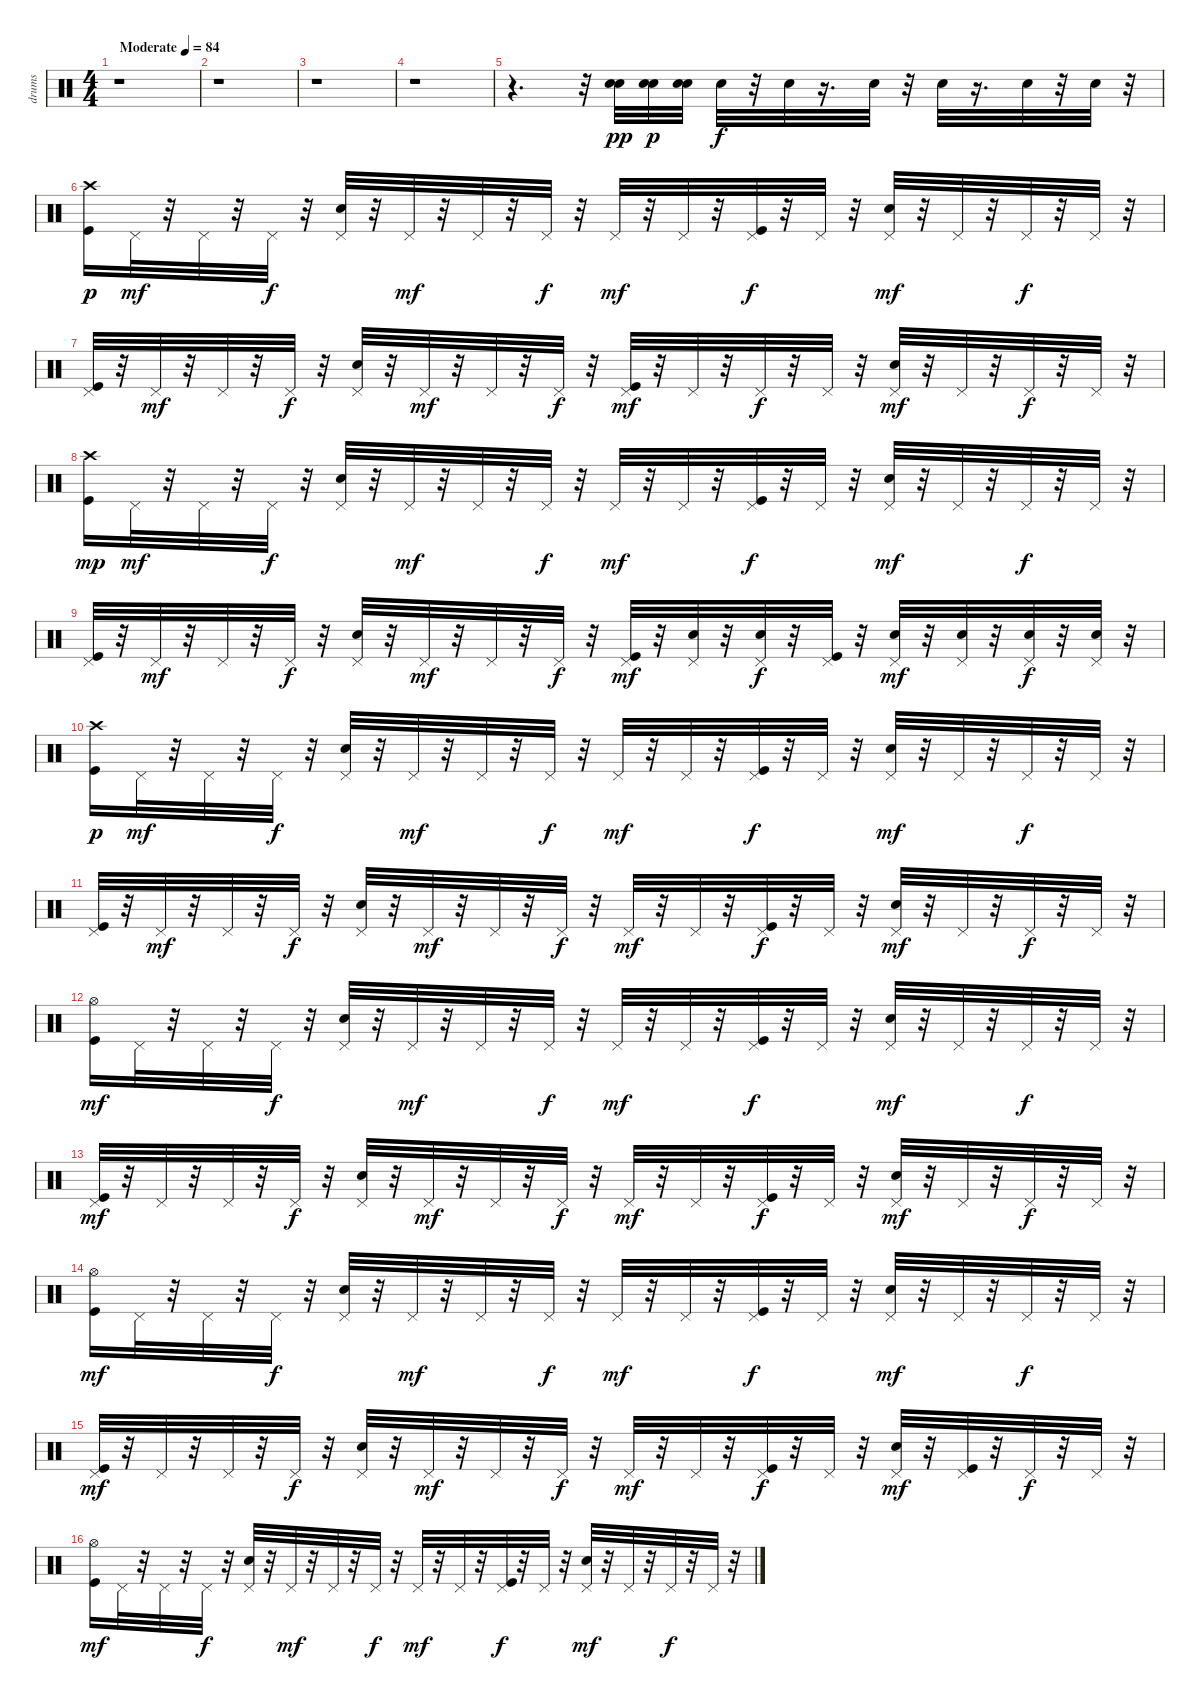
\track ("drums" "drums") {instrument percussion}
\staff {score}
\articulation defaults
\ts (4 4)
\tempo (84 "Moderate")
\clef neutral
\ks c
r.1{dy pp} |
r.1 |
r.1 |
r.1 |
r.4{d} r.32 ("Snare (hit) 2" "Snare (hit) 2").32 ("Snare (hit) 2" "Snare (hit) 2").32{dy p} ("Snare (hit) 2" "Snare (hit) 2").32 "Snare (hit) 2".32{dy f} r.32 "Snare (hit) 2".32 r.16{d} "Snare (hit) 2".32 r.32 "Snare (hit) 2".32 r.16{d} "Snare (hit) 2".32 r.32 "Snare (hit) 2".32 r.32 |
("Kick (hit)" "Crash high (hit)").16{dy p} "Pedal Hi-Hat (hit)".32{dy mf} r.32 "Pedal Hi-Hat (hit)".32 r.32 "Pedal Hi-Hat (hit)".32{dy f} r.32 ("Snare (hit) 2" "Pedal Hi-Hat (hit)").32 r.32 "Pedal Hi-Hat (hit)".32{dy mf} r.32 "Pedal Hi-Hat (hit)".32 r.32 "Pedal Hi-Hat (hit)".32{dy f} r.32 "Pedal Hi-Hat (hit)".32{dy mf} r.32 "Pedal Hi-Hat (hit)".32 r.32 ("Kick (hit)" "Pedal Hi-Hat (hit)").32{dy f} r.32 "Pedal Hi-Hat (hit)".32 r.32 ("Snare (hit) 2" "Pedal Hi-Hat (hit)").32{dy mf} r.32 "Pedal Hi-Hat (hit)".32 r.32 "Pedal Hi-Hat (hit)".32{dy f} r.32 "Pedal Hi-Hat (hit)".32 r.32 |
("Kick (hit)" "Pedal Hi-Hat (hit)").32 r.32 "Pedal Hi-Hat (hit)".32{dy mf} r.32 "Pedal Hi-Hat (hit)".32 r.32 "Pedal Hi-Hat (hit)".32{dy f} r.32 ("Snare (hit) 2" "Pedal Hi-Hat (hit)").32 r.32 "Pedal Hi-Hat (hit)".32{dy mf} r.32 "Pedal Hi-Hat (hit)".32 r.32 "Pedal Hi-Hat (hit)".32{dy f} r.32 ("Kick (hit)" "Pedal Hi-Hat (hit)").32{dy mf} r.32 "Pedal Hi-Hat (hit)".32 r.32 "Pedal Hi-Hat (hit)".32{dy f} r.32 "Pedal Hi-Hat (hit)".32 r.32 ("Snare (hit) 2" "Pedal Hi-Hat (hit)").32{dy mf} r.32 "Pedal Hi-Hat (hit)".32 r.32 "Pedal Hi-Hat (hit)".32{dy f} r.32 "Pedal Hi-Hat (hit)".32 r.32 |
("Kick (hit)" "Crash high (hit)").16{dy mp} "Pedal Hi-Hat (hit)".32{dy mf} r.32 "Pedal Hi-Hat (hit)".32 r.32 "Pedal Hi-Hat (hit)".32{dy f} r.32 ("Snare (hit) 2" "Pedal Hi-Hat (hit)").32 r.32 "Pedal Hi-Hat (hit)".32{dy mf} r.32 "Pedal Hi-Hat (hit)".32 r.32 "Pedal Hi-Hat (hit)".32{dy f} r.32 "Pedal Hi-Hat (hit)".32{dy mf} r.32 "Pedal Hi-Hat (hit)".32 r.32 ("Kick (hit)" "Pedal Hi-Hat (hit)").32{dy f} r.32 "Pedal Hi-Hat (hit)".32 r.32 ("Snare (hit) 2" "Pedal Hi-Hat (hit)").32{dy mf} r.32 "Pedal Hi-Hat (hit)".32 r.32 "Pedal Hi-Hat (hit)".32{dy f} r.32 "Pedal Hi-Hat (hit)".32 r.32 |
("Kick (hit)" "Pedal Hi-Hat (hit)").32 r.32 "Pedal Hi-Hat (hit)".32{dy mf} r.32 "Pedal Hi-Hat (hit)".32 r.32 "Pedal Hi-Hat (hit)".32{dy f} r.32 ("Snare (hit) 2" "Pedal Hi-Hat (hit)").32 r.32 "Pedal Hi-Hat (hit)".32{dy mf} r.32 "Pedal Hi-Hat (hit)".32 r.32 "Pedal Hi-Hat (hit)".32{dy f} r.32 ("Kick (hit)" "Pedal Hi-Hat (hit)").32{dy mf} r.32 ("Snare (hit) 2" "Pedal Hi-Hat (hit)").32 r.32 ("Snare (hit) 2" "Pedal Hi-Hat (hit)").32{dy f} r.32 ("Kick (hit)" "Pedal Hi-Hat (hit)").32 r.32 ("Snare (hit) 2" "Pedal Hi-Hat (hit)").32{dy mf} r.32 ("Snare (hit) 2" "Pedal Hi-Hat (hit)").32 r.32 ("Snare (hit) 2" "Pedal Hi-Hat (hit)").32{dy f} r.32 ("Snare (hit) 2" "Pedal Hi-Hat (hit)").32 r.32 |
("Kick (hit)" "Crash high (hit)").16{dy p} "Pedal Hi-Hat (hit)".32{dy mf} r.32 "Pedal Hi-Hat (hit)".32 r.32 "Pedal Hi-Hat (hit)".32{dy f} r.32 ("Snare (hit) 2" "Pedal Hi-Hat (hit)").32 r.32 "Pedal Hi-Hat (hit)".32{dy mf} r.32 "Pedal Hi-Hat (hit)".32 r.32 "Pedal Hi-Hat (hit)".32{dy f} r.32 "Pedal Hi-Hat (hit)".32{dy mf} r.32 "Pedal Hi-Hat (hit)".32 r.32 ("Kick (hit)" "Pedal Hi-Hat (hit)").32{dy f} r.32 "Pedal Hi-Hat (hit)".32 r.32 ("Snare (hit) 2" "Pedal Hi-Hat (hit)").32{dy mf} r.32 "Pedal Hi-Hat (hit)".32 r.32 "Pedal Hi-Hat (hit)".32{dy f} r.32 "Pedal Hi-Hat (hit)".32 r.32 |
("Kick (hit)" "Pedal Hi-Hat (hit)").32 r.32 "Pedal Hi-Hat (hit)".32{dy mf} r.32 "Pedal Hi-Hat (hit)".32 r.32 "Pedal Hi-Hat (hit)".32{dy f} r.32 ("Snare (hit) 2" "Pedal Hi-Hat (hit)").32 r.32 "Pedal Hi-Hat (hit)".32{dy mf} r.32 "Pedal Hi-Hat (hit)".32 r.32 "Pedal Hi-Hat (hit)".32{dy f} r.32 "Pedal Hi-Hat (hit)".32{dy mf} r.32 "Pedal Hi-Hat (hit)".32 r.32 ("Kick (hit)" "Pedal Hi-Hat (hit)").32{dy f} r.32 "Pedal Hi-Hat (hit)".32 r.32 ("Snare (hit) 2" "Pedal Hi-Hat (hit)").32{dy mf} r.32 "Pedal Hi-Hat (hit)".32 r.32 "Pedal Hi-Hat (hit)".32{dy f} r.32 "Pedal Hi-Hat (hit)".32 r.32 |
("Kick (hit)" "Hi-Hat (open)").16{dy mf} "Pedal Hi-Hat (hit)".32 r.32 "Pedal Hi-Hat (hit)".32 r.32 "Pedal Hi-Hat (hit)".32{dy f} r.32 ("Snare (hit) 2" "Pedal Hi-Hat (hit)").32 r.32 "Pedal Hi-Hat (hit)".32{dy mf} r.32 "Pedal Hi-Hat (hit)".32 r.32 "Pedal Hi-Hat (hit)".32{dy f} r.32 "Pedal Hi-Hat (hit)".32{dy mf} r.32 "Pedal Hi-Hat (hit)".32 r.32 ("Kick (hit)" "Pedal Hi-Hat (hit)").32{dy f} r.32 "Pedal Hi-Hat (hit)".32 r.32 ("Snare (hit) 2" "Pedal Hi-Hat (hit)").32{dy mf} r.32 "Pedal Hi-Hat (hit)".32 r.32 "Pedal Hi-Hat (hit)".32{dy f} r.32 "Pedal Hi-Hat (hit)".32 r.32 |
("Kick (hit)" "Pedal Hi-Hat (hit)").32{dy mf} r.32 "Pedal Hi-Hat (hit)".32 r.32 "Pedal Hi-Hat (hit)".32 r.32 "Pedal Hi-Hat (hit)".32{dy f} r.32 ("Snare (hit) 2" "Pedal Hi-Hat (hit)").32 r.32 "Pedal Hi-Hat (hit)".32{dy mf} r.32 "Pedal Hi-Hat (hit)".32 r.32 "Pedal Hi-Hat (hit)".32{dy f} r.32 "Pedal Hi-Hat (hit)".32{dy mf} r.32 "Pedal Hi-Hat (hit)".32 r.32 ("Kick (hit)" "Pedal Hi-Hat (hit)").32{dy f} r.32 "Pedal Hi-Hat (hit)".32 r.32 ("Snare (hit) 2" "Pedal Hi-Hat (hit)").32{dy mf} r.32 "Pedal Hi-Hat (hit)".32 r.32 "Pedal Hi-Hat (hit)".32{dy f} r.32 "Pedal Hi-Hat (hit)".32 r.32 |
("Kick (hit)" "Hi-Hat (open)").16{dy mf} "Pedal Hi-Hat (hit)".32 r.32 "Pedal Hi-Hat (hit)".32 r.32 "Pedal Hi-Hat (hit)".32{dy f} r.32 ("Snare (hit) 2" "Pedal Hi-Hat (hit)").32 r.32 "Pedal Hi-Hat (hit)".32{dy mf} r.32 "Pedal Hi-Hat (hit)".32 r.32 "Pedal Hi-Hat (hit)".32{dy f} r.32 "Pedal Hi-Hat (hit)".32{dy mf} r.32 "Pedal Hi-Hat (hit)".32 r.32 ("Kick (hit)" "Pedal Hi-Hat (hit)").32{dy f} r.32 "Pedal Hi-Hat (hit)".32 r.32 ("Snare (hit) 2" "Pedal Hi-Hat (hit)").32{dy mf} r.32 "Pedal Hi-Hat (hit)".32 r.32 "Pedal Hi-Hat (hit)".32{dy f} r.32 "Pedal Hi-Hat (hit)".32 r.32 |
("Kick (hit)" "Pedal Hi-Hat (hit)").32{dy mf} r.32 "Pedal Hi-Hat (hit)".32 r.32 "Pedal Hi-Hat (hit)".32 r.32 "Pedal Hi-Hat (hit)".32{dy f} r.32 ("Snare (hit) 2" "Pedal Hi-Hat (hit)").32 r.32 "Pedal Hi-Hat (hit)".32{dy mf} r.32 "Pedal Hi-Hat (hit)".32 r.32 "Pedal Hi-Hat (hit)".32{dy f} r.32 "Pedal Hi-Hat (hit)".32{dy mf} r.32 "Pedal Hi-Hat (hit)".32 r.32 ("Kick (hit)" "Pedal Hi-Hat (hit)").32{dy f} r.32 "Pedal Hi-Hat (hit)".32 r.32 ("Snare (hit) 2" "Pedal Hi-Hat (hit)").32{dy mf} r.32 ("Kick (hit)" "Pedal Hi-Hat (hit)").32 r.32 "Pedal Hi-Hat (hit)".32{dy f} r.32 "Pedal Hi-Hat (hit)".32 r.32 |
("Kick (hit)" "Hi-Hat (open)").16{dy mf} "Pedal Hi-Hat (hit)".32 r.32 "Pedal Hi-Hat (hit)".32 r.32 "Pedal Hi-Hat (hit)".32{dy f} r.32 ("Snare (hit) 2" "Pedal Hi-Hat (hit)").32 r.32 "Pedal Hi-Hat (hit)".32{dy mf} r.32 "Pedal Hi-Hat (hit)".32 r.32 "Pedal Hi-Hat (hit)".32{dy f} r.32 "Pedal Hi-Hat (hit)".32{dy mf} r.32 "Pedal Hi-Hat (hit)".32 r.32 ("Kick (hit)" "Pedal Hi-Hat (hit)").32{dy f} r.32 "Pedal Hi-Hat (hit)".32 r.32 ("Snare (hit) 2" "Pedal Hi-Hat (hit)").32{dy mf} r.32 "Pedal Hi-Hat (hit)".32 r.32 "Pedal Hi-Hat (hit)".32{dy f} r.32 "Pedal Hi-Hat (hit)".32 r.32
